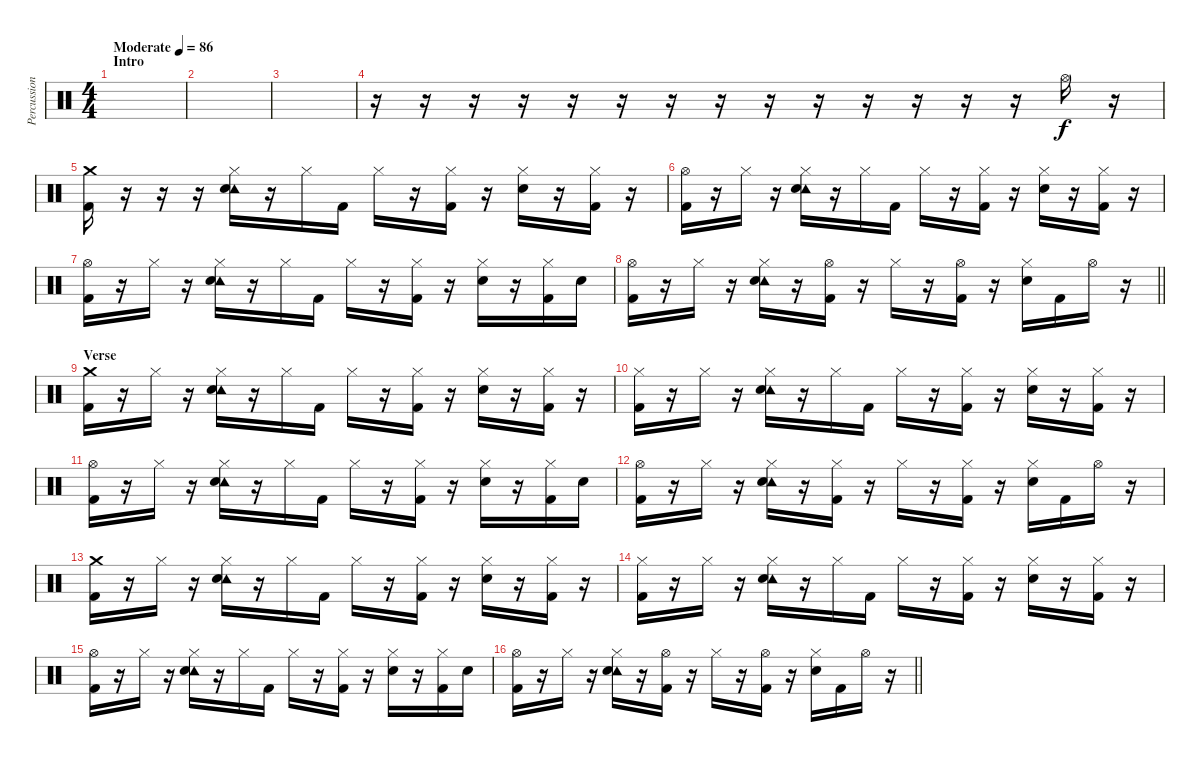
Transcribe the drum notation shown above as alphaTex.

\track ("Percussion" "Percussion") {instrument percussion}
\staff {score}
\articulation defaults
\ts (4 4)
\section ("" "Intro")
\tempo (86 "Moderate")
\clef neutral
\ks c
|
|
|
r.16 r.16 r.16 r.16 r.16 r.16 r.16 r.16 r.16 r.16 r.16 r.16 r.16 r.16 "Hi-Hat (open)".16 r.16 |
("Crash medium (hit)" "Kick (hit) 2").16 r.16 r.16 r.16 ("Hi-Hat (closed)" "Tambourine (hit)" "Snare (hit) 2").16 r.16 "Hi-Hat (closed)".16 "Kick (hit) 2".16 "Hi-Hat (closed)".16 r.16 ("Hi-Hat (closed)" "Kick (hit) 2").16 r.16 ("Hi-Hat (closed)" "Snare (hit) 2").16 r.16 ("Hi-Hat (closed)" "Kick (hit) 2").16 r.16 |
("Hi-Hat (open)" "Kick (hit) 2").16 r.16 "Hi-Hat (closed)".16 r.16 ("Hi-Hat (closed)" "Tambourine (hit)" "Snare (hit) 2").16 r.16 "Hi-Hat (closed)".16 "Kick (hit) 2".16 "Hi-Hat (closed)".16 r.16 ("Hi-Hat (closed)" "Kick (hit) 2").16 r.16 ("Hi-Hat (closed)" "Snare (hit) 2").16 r.16 ("Hi-Hat (closed)" "Kick (hit) 2").16 r.16 |
("Hi-Hat (open)" "Kick (hit) 2").16 r.16 "Hi-Hat (closed)".16 r.16 ("Hi-Hat (closed)" "Tambourine (hit)" "Snare (hit) 2").16 r.16 "Hi-Hat (closed)".16 "Kick (hit) 2".16 "Hi-Hat (closed)".16 r.16 ("Hi-Hat (closed)" "Kick (hit) 2").16 r.16 ("Hi-Hat (closed)" "Snare (hit) 2").16 r.16 ("Hi-Hat (closed)" "Kick (hit) 2").16 "Snare (hit) 2".16 |
\barLineRight lightlight
("Hi-Hat (open)" "Kick (hit) 2").16 r.16 "Hi-Hat (closed)".16 r.16 ("Hi-Hat (closed)" "Tambourine (hit)" "Snare (hit) 2").16 r.16 ("Hi-Hat (open)" "Kick (hit) 2").16 r.16 "Hi-Hat (closed)".16 r.16 ("Hi-Hat (open)" "Kick (hit) 2").16 r.16 ("Hi-Hat (closed)" "Snare (hit) 2").16 "Kick (hit) 2".16 "Hi-Hat (open)".16 r.16 |
\section ("" "Verse")
("Crash medium (hit)" "Kick (hit) 2").16 r.16 "Hi-Hat (closed)".16 r.16 ("Hi-Hat (closed)" "Tambourine (hit)" "Snare (hit) 2").16 r.16 "Hi-Hat (closed)".16 "Kick (hit) 2".16 "Hi-Hat (closed)".16 r.16 ("Hi-Hat (closed)" "Kick (hit) 2").16 r.16 ("Hi-Hat (closed)" "Snare (hit) 2").16 r.16 ("Hi-Hat (closed)" "Kick (hit) 2").16 r.16 |
("Hi-Hat (closed)" "Kick (hit) 2").16 r.16 "Hi-Hat (closed)".16 r.16 ("Hi-Hat (closed)" "Tambourine (hit)" "Snare (hit) 2").16 r.16 "Hi-Hat (closed)".16 "Kick (hit) 2".16 "Hi-Hat (closed)".16 r.16 ("Hi-Hat (closed)" "Kick (hit) 2").16 r.16 ("Hi-Hat (closed)" "Snare (hit) 2").16 r.16 ("Hi-Hat (closed)" "Kick (hit) 2").16 r.16 |
("Hi-Hat (open)" "Kick (hit) 2").16 r.16 "Hi-Hat (closed)".16 r.16 ("Hi-Hat (closed)" "Tambourine (hit)" "Snare (hit) 2").16 r.16 "Hi-Hat (closed)".16 "Kick (hit) 2".16 "Hi-Hat (closed)".16 r.16 ("Hi-Hat (closed)" "Kick (hit) 2").16 r.16 ("Hi-Hat (closed)" "Snare (hit) 2").16 r.16 ("Hi-Hat (closed)" "Kick (hit) 2").16 "Snare (hit) 2".16 |
("Hi-Hat (open)" "Kick (hit) 2").16 r.16 "Hi-Hat (closed)".16 r.16 ("Hi-Hat (closed)" "Tambourine (hit)" "Snare (hit) 2").16 r.16 ("Hi-Hat (closed)" "Kick (hit) 2").16 r.16 "Hi-Hat (closed)".16 r.16 ("Hi-Hat (closed)" "Kick (hit) 2").16 r.16 ("Hi-Hat (closed)" "Snare (hit) 2").16 "Kick (hit) 2".16 "Hi-Hat (open)".16 r.16 |
("Crash medium (hit)" "Kick (hit) 2").16 r.16 "Hi-Hat (closed)".16 r.16 ("Hi-Hat (closed)" "Tambourine (hit)" "Snare (hit) 2").16 r.16 "Hi-Hat (closed)".16 "Kick (hit) 2".16 "Hi-Hat (closed)".16 r.16 ("Hi-Hat (closed)" "Kick (hit) 2").16 r.16 ("Hi-Hat (closed)" "Snare (hit) 2").16 r.16 ("Hi-Hat (closed)" "Kick (hit) 2").16 r.16 |
("Hi-Hat (closed)" "Kick (hit) 2").16 r.16 "Hi-Hat (closed)".16 r.16 ("Hi-Hat (closed)" "Tambourine (hit)" "Snare (hit) 2").16 r.16 "Hi-Hat (closed)".16 "Kick (hit) 2".16 "Hi-Hat (closed)".16 r.16 ("Hi-Hat (closed)" "Kick (hit) 2").16 r.16 ("Hi-Hat (closed)" "Snare (hit) 2").16 r.16 ("Hi-Hat (closed)" "Kick (hit) 2").16 r.16 |
("Hi-Hat (open)" "Kick (hit) 2").16 r.16 "Hi-Hat (closed)".16 r.16 ("Hi-Hat (closed)" "Tambourine (hit)" "Snare (hit) 2").16 r.16 "Hi-Hat (closed)".16 "Kick (hit) 2".16 "Hi-Hat (closed)".16 r.16 ("Hi-Hat (closed)" "Kick (hit) 2").16 r.16 ("Hi-Hat (closed)" "Snare (hit) 2").16 r.16 ("Hi-Hat (closed)" "Kick (hit) 2").16 "Snare (hit) 2".16 |
\barLineRight lightlight
("Hi-Hat (open)" "Kick (hit) 2").16 r.16 "Hi-Hat (closed)".16 r.16 ("Hi-Hat (closed)" "Tambourine (hit)" "Snare (hit) 2").16 r.16 ("Hi-Hat (open)" "Kick (hit) 2").16 r.16 "Hi-Hat (closed)".16 r.16 ("Hi-Hat (open)" "Kick (hit) 2").16 r.16 ("Hi-Hat (closed)" "Snare (hit) 2").16 "Kick (hit) 2".16 "Hi-Hat (open)".16 r.16
